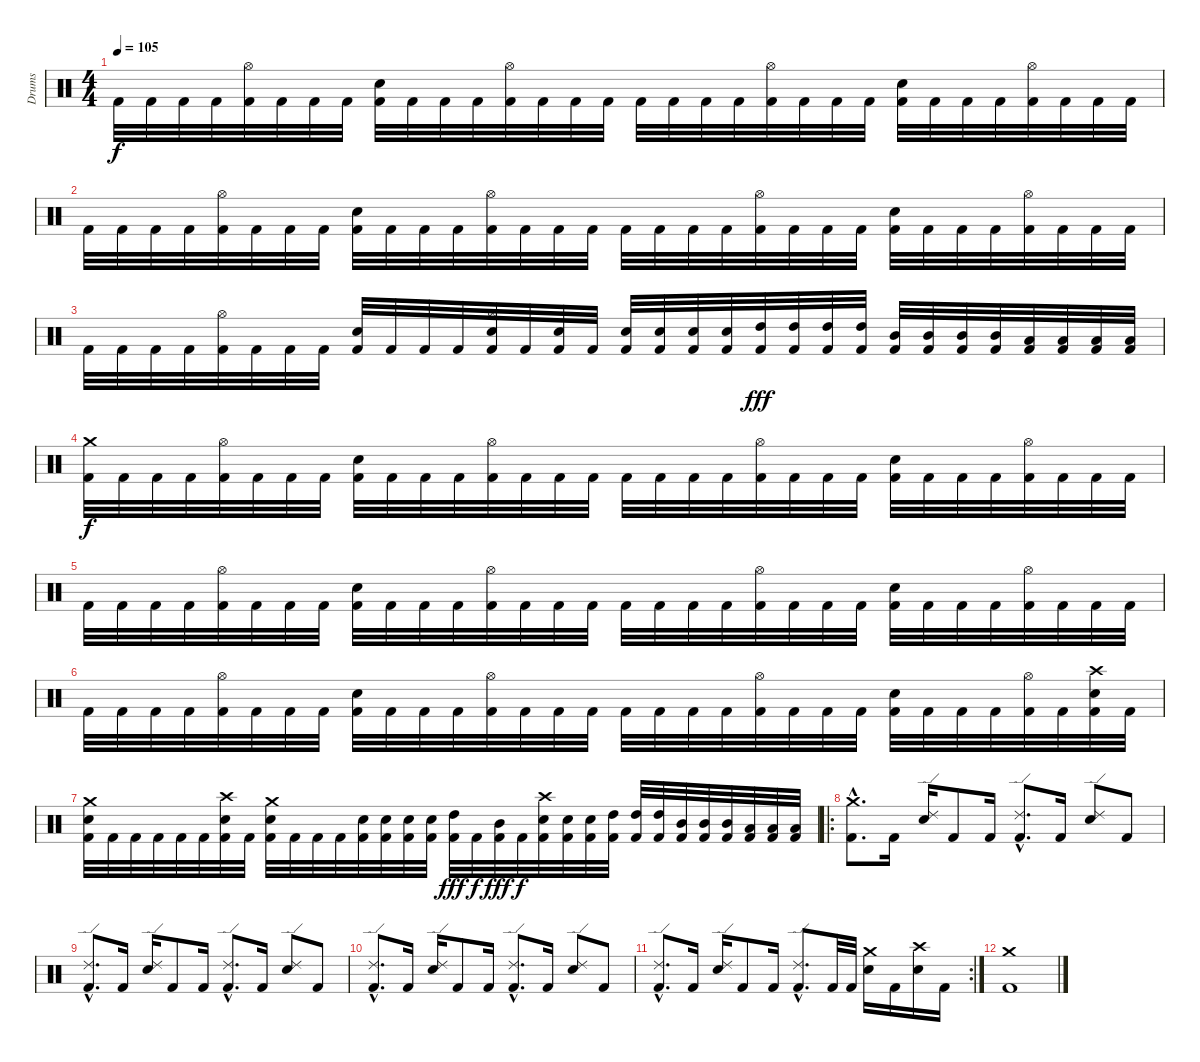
\track ("Drums" "Drums") {instrument percussion}
\staff {score}
\articulation defaults
\ts (4 4)
\tempo 105
\clef neutral
\ks c "Kick (hit) 2".32{dy f} "Kick (hit) 2".32 "Kick (hit) 2".32 "Kick (hit) 2".32
("Kick (hit) 2" "Hi-Hat (open)").32 "Kick (hit) 2".32 "Kick (hit) 2".32 "Kick (hit) 2".32 ("Kick (hit) 2" "Electric Snare (hit)").32 "Kick (hit) 2".32 "Kick (hit) 2".32 "Kick (hit) 2".32 ("Kick (hit) 2" "Hi-Hat (open)").32 "Kick (hit) 2".32 "Kick (hit) 2".32 "Kick (hit) 2".32 "Kick (hit) 2".32 "Kick (hit) 2".32 "Kick (hit) 2".32 "Kick (hit) 2".32 ("Kick (hit) 2" "Hi-Hat (open)").32 "Kick (hit) 2".32 "Kick (hit) 2".32 "Kick (hit) 2".32 ("Kick (hit) 2" "Electric Snare (hit)").32 "Kick (hit) 2".32 "Kick (hit) 2".32 "Kick (hit) 2".32 ("Kick (hit) 2" "Hi-Hat (open)").32 "Kick (hit) 2".32 "Kick (hit) 2".32 "Kick (hit) 2".32 |
"Kick (hit) 2".32 "Kick (hit) 2".32 "Kick (hit) 2".32 "Kick (hit) 2".32 ("Kick (hit) 2" "Hi-Hat (open)").32 "Kick (hit) 2".32 "Kick (hit) 2".32 "Kick (hit) 2".32 ("Kick (hit) 2" "Electric Snare (hit)").32 "Kick (hit) 2".32 "Kick (hit) 2".32 "Kick (hit) 2".32 ("Kick (hit) 2" "Hi-Hat (open)").32 "Kick (hit) 2".32 "Kick (hit) 2".32 "Kick (hit) 2".32 "Kick (hit) 2".32 "Kick (hit) 2".32 "Kick (hit) 2".32 "Kick (hit) 2".32 ("Kick (hit) 2" "Hi-Hat (open)").32 "Kick (hit) 2".32 "Kick (hit) 2".32 "Kick (hit) 2".32 ("Kick (hit) 2" "Electric Snare (hit)").32 "Kick (hit) 2".32 "Kick (hit) 2".32 "Kick (hit) 2".32 ("Kick (hit) 2" "Hi-Hat (open)").32 "Kick (hit) 2".32 "Kick (hit) 2".32 "Kick (hit) 2".32 |
"Kick (hit) 2".32 "Kick (hit) 2".32 "Kick (hit) 2".32 "Kick (hit) 2".32 ("Kick (hit) 2" "Hi-Hat (open)").32 "Kick (hit) 2".32 "Kick (hit) 2".32 "Kick (hit) 2".32 ("Kick (hit) 2" "Electric Snare (hit)").32 "Kick (hit) 2".32 "Kick (hit) 2".32 "Kick (hit) 2".32 ("Kick (hit) 2" "Electric Snare (hit)" "Hi-Hat (open)").32 "Kick (hit) 2".32 ("Kick (hit) 2" "Electric Snare (hit)").32 "Kick (hit) 2".32 ("Kick (hit) 2" "Electric Snare (hit)").32 ("Kick (hit) 2" "Electric Snare (hit)").32 ("Kick (hit) 2" "Electric Snare (hit)").32 ("Kick (hit) 2" "Electric Snare (hit)").32 ("Kick (hit) 2" "High Tom (hit)").32{dy fff} ("Kick (hit) 2" "High Tom (hit)").32 ("Kick (hit) 2" "High Tom (hit)").32 ("Kick (hit) 2" "High Tom (hit)").32 ("Kick (hit) 2" "Mid Tom (hit)").32 ("Kick (hit) 2" "Mid Tom (hit)").32 ("Kick (hit) 2" "Mid Tom (hit)").32 ("Kick (hit) 2" "Mid Tom (hit)").32 ("Kick (hit) 2" "Low Tom (hit)").32 ("Kick (hit) 2" "Low Tom (hit)").32 ("Kick (hit) 2" "Low Tom (hit)").32 ("Kick (hit) 2" "Low Tom (hit)").32 |
("Kick (hit) 2" "Crash medium (hit)").32{dy f} "Kick (hit) 2".32 "Kick (hit) 2".32 "Kick (hit) 2".32 ("Kick (hit) 2" "Hi-Hat (open)").32 "Kick (hit) 2".32 "Kick (hit) 2".32 "Kick (hit) 2".32 ("Kick (hit) 2" "Electric Snare (hit)").32 "Kick (hit) 2".32 "Kick (hit) 2".32 "Kick (hit) 2".32 ("Kick (hit) 2" "Hi-Hat (open)").32 "Kick (hit) 2".32 "Kick (hit) 2".32 "Kick (hit) 2".32 "Kick (hit) 2".32 "Kick (hit) 2".32 "Kick (hit) 2".32 "Kick (hit) 2".32 ("Kick (hit) 2" "Hi-Hat (open)").32 "Kick (hit) 2".32 "Kick (hit) 2".32 "Kick (hit) 2".32 ("Kick (hit) 2" "Electric Snare (hit)").32 "Kick (hit) 2".32 "Kick (hit) 2".32 "Kick (hit) 2".32 ("Kick (hit) 2" "Hi-Hat (open)").32 "Kick (hit) 2".32 "Kick (hit) 2".32 "Kick (hit) 2".32 |
"Kick (hit) 2".32 "Kick (hit) 2".32 "Kick (hit) 2".32 "Kick (hit) 2".32 ("Kick (hit) 2" "Hi-Hat (open)").32 "Kick (hit) 2".32 "Kick (hit) 2".32 "Kick (hit) 2".32 ("Kick (hit) 2" "Electric Snare (hit)").32 "Kick (hit) 2".32 "Kick (hit) 2".32 "Kick (hit) 2".32 ("Kick (hit) 2" "Hi-Hat (open)").32 "Kick (hit) 2".32 "Kick (hit) 2".32 "Kick (hit) 2".32 "Kick (hit) 2".32 "Kick (hit) 2".32 "Kick (hit) 2".32 "Kick (hit) 2".32 ("Kick (hit) 2" "Hi-Hat (open)").32 "Kick (hit) 2".32 "Kick (hit) 2".32 "Kick (hit) 2".32 ("Kick (hit) 2" "Electric Snare (hit)").32 "Kick (hit) 2".32 "Kick (hit) 2".32 "Kick (hit) 2".32 ("Kick (hit) 2" "Hi-Hat (open)").32 "Kick (hit) 2".32 "Kick (hit) 2".32 "Kick (hit) 2".32 |
"Kick (hit) 2".32 "Kick (hit) 2".32 "Kick (hit) 2".32 "Kick (hit) 2".32 ("Kick (hit) 2" "Hi-Hat (open)").32 "Kick (hit) 2".32 "Kick (hit) 2".32 "Kick (hit) 2".32 ("Kick (hit) 2" "Electric Snare (hit)").32 "Kick (hit) 2".32 "Kick (hit) 2".32 "Kick (hit) 2".32 ("Kick (hit) 2" "Hi-Hat (open)").32 "Kick (hit) 2".32 "Kick (hit) 2".32 "Kick (hit) 2".32 "Kick (hit) 2".32 "Kick (hit) 2".32 "Kick (hit) 2".32 "Kick (hit) 2".32 ("Kick (hit) 2" "Hi-Hat (open)").32 "Kick (hit) 2".32 "Kick (hit) 2".32 "Kick (hit) 2".32 ("Kick (hit) 2" "Electric Snare (hit)").32 "Kick (hit) 2".32 "Kick (hit) 2".32 "Kick (hit) 2".32 ("Kick (hit) 2" "Hi-Hat (open)").32 "Kick (hit) 2".32 ("Kick (hit) 2" "Electric Snare (hit)" "Crash high (hit)").32 "Kick (hit) 2".32 |
("Kick (hit) 2" "Electric Snare (hit)" "Crash medium (hit)").32 "Kick (hit) 2".32 "Kick (hit) 2".32 "Kick (hit) 2".32 "Kick (hit) 2".32 "Kick (hit) 2".32 ("Kick (hit) 2" "Electric Snare (hit)" "Crash high (hit)").32 "Kick (hit) 2".32 ("Kick (hit) 2" "Electric Snare (hit)" "Crash medium (hit)").32 "Kick (hit) 2".32 "Kick (hit) 2".32 "Kick (hit) 2".32 ("Kick (hit) 2" "Electric Snare (hit)").32 ("Kick (hit) 2" "Electric Snare (hit)").32 ("Kick (hit) 2" "Electric Snare (hit)").32 ("Kick (hit) 2" "Electric Snare (hit)").32 ("Kick (hit) 2" "High Tom (hit)").32{dy fff} "Kick (hit) 2".32{dy f} ("Kick (hit) 2" "Mid Tom (hit)").32{dy fff} "Kick (hit) 2".32{dy f} ("Kick (hit) 2" "Electric Snare (hit)" "Crash high (hit)").32 ("Kick (hit) 2" "Electric Snare (hit)").32 ("Kick (hit) 2" "Electric Snare (hit)").32 ("Kick (hit) 2" "High Tom (hit)").32 ("Kick (hit) 2" "High Tom (hit)").32 ("Kick (hit) 2" "High Tom (hit)").32 ("Kick (hit) 2" "Mid Tom (hit)").32 ("Kick (hit) 2" "Mid Tom (hit)").32 ("Kick (hit) 2" "Mid Tom (hit)").32 ("Kick (hit) 2" "Low Tom (hit)").32 ("Kick (hit) 2" "Low Tom (hit)").32 ("Kick (hit) 2" "Low Tom (hit)").32 |
\ro
("Kick (hit) 2"{hac} "Crash medium (hit)"{hac}).8{d} "Kick (hit) 2".16 ("Electric Snare (hit)" "Ride (edge) 2").16 "Kick (hit) 2".8 "Kick (hit) 2".16 ("Kick (hit) 2"{hac} "Ride (edge) 2"{hac}).8{d} "Kick (hit) 2".16 ("Electric Snare (hit)" "Ride (edge) 2").8 "Kick (hit) 2".8 |
("Kick (hit) 2"{hac} "Ride (edge) 2"{hac}).8{d} "Kick (hit) 2".16 ("Electric Snare (hit)" "Ride (edge) 2").16 "Kick (hit) 2".8 "Kick (hit) 2".16 ("Kick (hit) 2"{hac} "Ride (edge) 2"{hac}).8{d} "Kick (hit) 2".16 ("Electric Snare (hit)" "Ride (edge) 2").8 "Kick (hit) 2".8 |
("Kick (hit) 2"{hac} "Ride (edge) 2"{hac}).8{d} "Kick (hit) 2".16 ("Electric Snare (hit)" "Ride (edge) 2").16 "Kick (hit) 2".8 "Kick (hit) 2".16 ("Kick (hit) 2"{hac} "Ride (edge) 2"{hac}).8{d} "Kick (hit) 2".16 ("Electric Snare (hit)" "Ride (edge) 2").8 "Kick (hit) 2".8 |
\rc 2
("Kick (hit) 2"{hac} "Ride (edge) 2"{hac}).8{d} "Kick (hit) 2".16 ("Electric Snare (hit)" "Ride (edge) 2").16 "Kick (hit) 2".8 "Kick (hit) 2".16 ("Kick (hit) 2"{hac} "Ride (edge) 2"{hac}).8{d} "Kick (hit) 2".32 "Kick (hit) 2".32 ("Electric Snare (hit)" "Crash medium (hit)").16 "Kick (hit) 2".16 ("Electric Snare (hit)" "Crash high (hit)").16 "Kick (hit) 2".16 |
("Kick (hit) 2" "Crash medium (hit)").1
